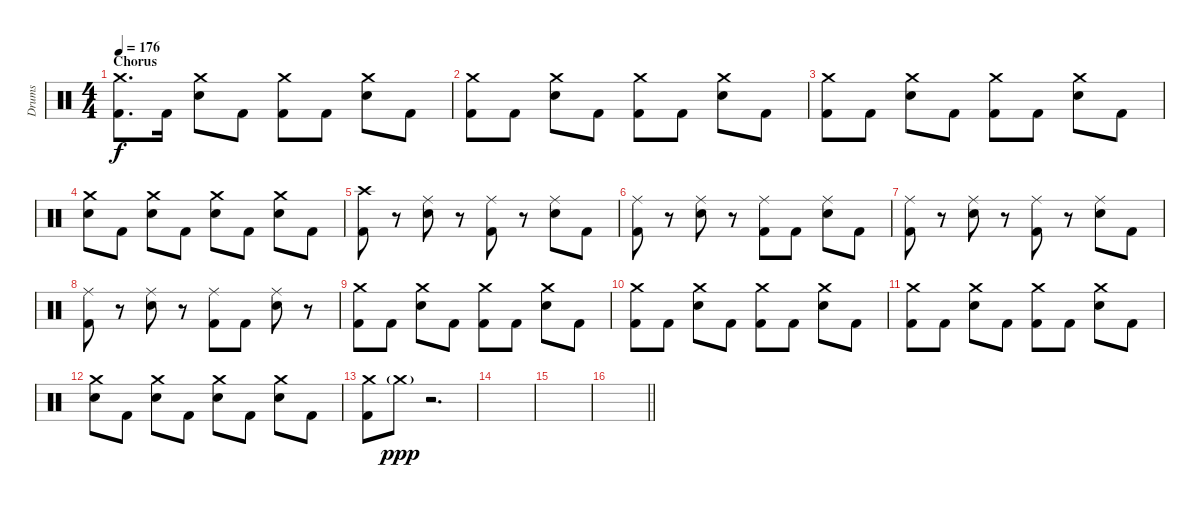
\track ("Drums" "Drums") {instrument percussion}
\staff {score}
\articulation defaults
\ts (4 4)
\section ("" "Chorus")
\tempo 176
\clef neutral
\ks c
("Crash medium (hit)" "Kick (hit) 2").8{d dy f} "Kick (hit) 2".16 ("Crash medium (hit)" "Electric Snare (hit)").8 "Kick (hit) 2".8 ("Crash medium (hit)" "Kick (hit) 2").8 "Kick (hit) 2".8 ("Crash medium (hit)" "Electric Snare (hit)").8 "Kick (hit) 2".8 |
("Crash medium (hit)" "Kick (hit) 2").8 "Kick (hit) 2".8 ("Crash medium (hit)" "Electric Snare (hit)").8 "Kick (hit) 2".8 ("Crash medium (hit)" "Kick (hit) 2").8 "Kick (hit) 2".8 ("Crash medium (hit)" "Electric Snare (hit)").8 "Kick (hit) 2".8 |
("Crash medium (hit)" "Kick (hit) 2").8 "Kick (hit) 2".8 ("Crash medium (hit)" "Electric Snare (hit)").8 "Kick (hit) 2".8 ("Crash medium (hit)" "Kick (hit) 2").8 "Kick (hit) 2".8 ("Crash medium (hit)" "Electric Snare (hit)").8 "Kick (hit) 2".8 |
("Crash medium (hit)" "Electric Snare (hit)").8 "Kick (hit) 2".8 ("Crash medium (hit)" "Electric Snare (hit)").8 "Kick (hit) 2".8 ("Crash medium (hit)" "Electric Snare (hit)").8 "Kick (hit) 2".8 ("Crash medium (hit)" "Electric Snare (hit)").8 "Kick (hit) 2".8 |
("Crash high (hit)" "Kick (hit) 2").8 r.8 ("Ride (middle)" "Electric Snare (hit)").8 r.8 ("Ride (middle)" "Kick (hit) 2").8 r.8 ("Ride (middle)" "Electric Snare (hit)").8 "Kick (hit) 2".8 |
("Ride (middle)" "Kick (hit) 2").8 r.8 ("Ride (middle)" "Electric Snare (hit)").8 r.8 ("Ride (middle)" "Kick (hit) 2").8 "Kick (hit) 2".8 ("Ride (middle)" "Electric Snare (hit)").8 "Kick (hit) 2".8 |
("Ride (middle)" "Kick (hit) 2").8 r.8 ("Ride (middle)" "Electric Snare (hit)").8 r.8 ("Ride (middle)" "Kick (hit) 2").8 r.8 ("Ride (middle)" "Electric Snare (hit)").8 "Kick (hit) 2".8 |
("Ride (middle)" "Kick (hit) 2").8 r.8 ("Ride (middle)" "Electric Snare (hit)").8 r.8 ("Ride (middle)" "Kick (hit) 2").8 "Kick (hit) 2".8 ("Ride (middle)" "Electric Snare (hit)").8 r.8 |
("Crash medium (hit)" "Kick (hit) 2").8 "Kick (hit) 2".8 ("Crash medium (hit)" "Electric Snare (hit)").8 "Kick (hit) 2".8 ("Crash medium (hit)" "Kick (hit) 2").8 "Kick (hit) 2".8 ("Crash medium (hit)" "Electric Snare (hit)").8 "Kick (hit) 2".8 |
("Crash medium (hit)" "Kick (hit) 2").8 "Kick (hit) 2".8 ("Crash medium (hit)" "Electric Snare (hit)").8 "Kick (hit) 2".8 ("Crash medium (hit)" "Kick (hit) 2").8 "Kick (hit) 2".8 ("Crash medium (hit)" "Electric Snare (hit)").8 "Kick (hit) 2".8 |
("Crash medium (hit)" "Kick (hit) 2").8 "Kick (hit) 2".8 ("Crash medium (hit)" "Electric Snare (hit)").8 "Kick (hit) 2".8 ("Crash medium (hit)" "Kick (hit) 2").8 "Kick (hit) 2".8 ("Crash medium (hit)" "Electric Snare (hit)").8 "Kick (hit) 2".8 |
("Crash medium (hit)" "Electric Snare (hit)").8 "Kick (hit) 2".8 ("Crash medium (hit)" "Electric Snare (hit)").8 "Kick (hit) 2".8 ("Crash medium (hit)" "Electric Snare (hit)").8 "Kick (hit) 2".8 ("Crash medium (hit)" "Electric Snare (hit)").8 "Kick (hit) 2".8 |
("Crash medium (hit)" "Kick (hit) 2").8 "Crash medium (hit)"{g}.8{dy ppp} r.2{d} |
|
|
\barLineRight lightlight
